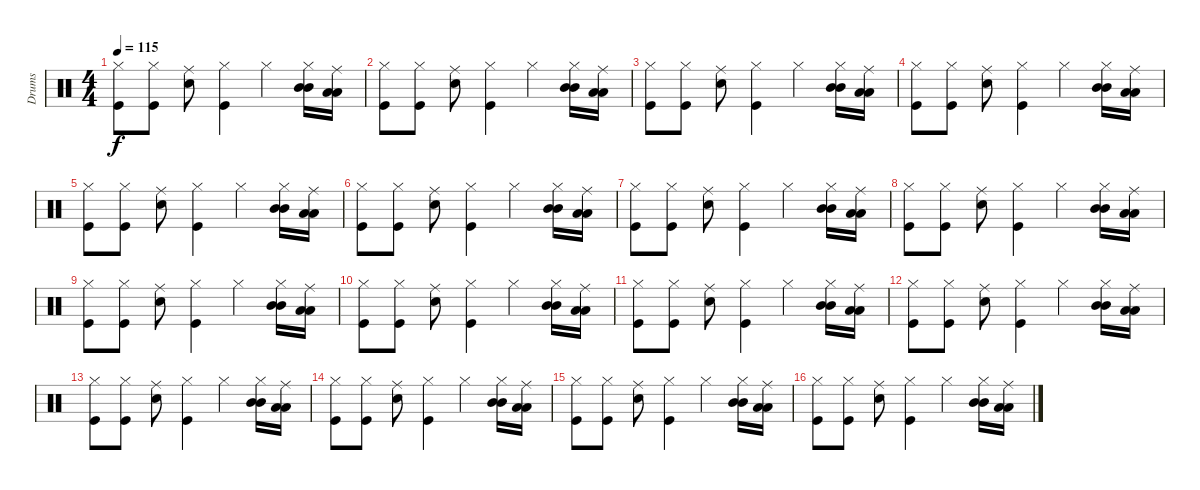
\track ("Drums" "Drums") {instrument percussion}
\staff {score}
\articulation defaults
\ts (4 4)
\tempo 115
\clef neutral
\ks c
("Hi-Hat (closed)" "Kick (hit)").8{dy f} ("Hi-Hat (closed)" "Kick (hit)").8 ("Ride (middle)" "Electric Snare (hit)").8 ("Hi-Hat (closed)" "Kick (hit)").4 "Hi-Hat (closed)".4 ("Hi-Hat (closed)" "Mid Tom (hit)" "Mid Tom (hit)").16 ("Ride (middle)" "Low Tom (hit)" "Low Tom (hit)").16 |
("Hi-Hat (closed)" "Kick (hit)").8 ("Hi-Hat (closed)" "Kick (hit)").8 ("Ride (middle)" "Electric Snare (hit)").8 ("Hi-Hat (closed)" "Kick (hit)").4 "Hi-Hat (closed)".4 ("Hi-Hat (closed)" "Mid Tom (hit)" "Mid Tom (hit)").16 ("Ride (middle)" "Low Tom (hit)" "Low Tom (hit)").16 |
("Hi-Hat (closed)" "Kick (hit)").8 ("Hi-Hat (closed)" "Kick (hit)").8 ("Ride (middle)" "Electric Snare (hit)").8 ("Hi-Hat (closed)" "Kick (hit)").4 "Hi-Hat (closed)".4 ("Hi-Hat (closed)" "Mid Tom (hit)" "Mid Tom (hit)").16 ("Ride (middle)" "Low Tom (hit)" "Low Tom (hit)").16 |
("Hi-Hat (closed)" "Kick (hit)").8 ("Hi-Hat (closed)" "Kick (hit)").8 ("Ride (middle)" "Electric Snare (hit)").8 ("Hi-Hat (closed)" "Kick (hit)").4 "Hi-Hat (closed)".4 ("Hi-Hat (closed)" "Mid Tom (hit)" "Mid Tom (hit)").16 ("Ride (middle)" "Low Tom (hit)" "Low Tom (hit)").16 |
("Hi-Hat (closed)" "Kick (hit)").8 ("Hi-Hat (closed)" "Kick (hit)").8 ("Ride (middle)" "Electric Snare (hit)").8 ("Hi-Hat (closed)" "Kick (hit)").4 "Hi-Hat (closed)".4 ("Hi-Hat (closed)" "Mid Tom (hit)" "Mid Tom (hit)").16 ("Ride (middle)" "Low Tom (hit)" "Low Tom (hit)").16 |
("Hi-Hat (closed)" "Kick (hit)").8 ("Hi-Hat (closed)" "Kick (hit)").8 ("Ride (middle)" "Electric Snare (hit)").8 ("Hi-Hat (closed)" "Kick (hit)").4 "Hi-Hat (closed)".4 ("Hi-Hat (closed)" "Mid Tom (hit)" "Mid Tom (hit)").16 ("Ride (middle)" "Low Tom (hit)" "Low Tom (hit)").16 |
("Hi-Hat (closed)" "Kick (hit)").8 ("Hi-Hat (closed)" "Kick (hit)").8 ("Ride (middle)" "Electric Snare (hit)").8 ("Hi-Hat (closed)" "Kick (hit)").4 "Hi-Hat (closed)".4 ("Hi-Hat (closed)" "Mid Tom (hit)" "Mid Tom (hit)").16 ("Ride (middle)" "Low Tom (hit)" "Low Tom (hit)").16 |
("Hi-Hat (closed)" "Kick (hit)").8 ("Hi-Hat (closed)" "Kick (hit)").8 ("Ride (middle)" "Electric Snare (hit)").8 ("Hi-Hat (closed)" "Kick (hit)").4 "Hi-Hat (closed)".4 ("Hi-Hat (closed)" "Mid Tom (hit)" "Mid Tom (hit)").16 ("Ride (middle)" "Low Tom (hit)" "Low Tom (hit)").16 |
("Hi-Hat (closed)" "Kick (hit)").8 ("Hi-Hat (closed)" "Kick (hit)").8 ("Ride (middle)" "Electric Snare (hit)").8 ("Hi-Hat (closed)" "Kick (hit)").4 "Hi-Hat (closed)".4 ("Hi-Hat (closed)" "Mid Tom (hit)" "Mid Tom (hit)").16 ("Ride (middle)" "Low Tom (hit)" "Low Tom (hit)").16 |
("Hi-Hat (closed)" "Kick (hit)").8 ("Hi-Hat (closed)" "Kick (hit)").8 ("Ride (middle)" "Electric Snare (hit)").8 ("Hi-Hat (closed)" "Kick (hit)").4 "Hi-Hat (closed)".4 ("Hi-Hat (closed)" "Mid Tom (hit)" "Mid Tom (hit)").16 ("Ride (middle)" "Low Tom (hit)" "Low Tom (hit)").16 |
("Hi-Hat (closed)" "Kick (hit)").8 ("Hi-Hat (closed)" "Kick (hit)").8 ("Ride (middle)" "Electric Snare (hit)").8 ("Hi-Hat (closed)" "Kick (hit)").4 "Hi-Hat (closed)".4 ("Hi-Hat (closed)" "Mid Tom (hit)" "Mid Tom (hit)").16 ("Ride (middle)" "Low Tom (hit)" "Low Tom (hit)").16 |
("Hi-Hat (closed)" "Kick (hit)").8 ("Hi-Hat (closed)" "Kick (hit)").8 ("Ride (middle)" "Electric Snare (hit)").8 ("Hi-Hat (closed)" "Kick (hit)").4 "Hi-Hat (closed)".4 ("Hi-Hat (closed)" "Mid Tom (hit)" "Mid Tom (hit)").16 ("Ride (middle)" "Low Tom (hit)" "Low Tom (hit)").16 |
("Hi-Hat (closed)" "Kick (hit)").8 ("Hi-Hat (closed)" "Kick (hit)").8 ("Ride (middle)" "Electric Snare (hit)").8 ("Hi-Hat (closed)" "Kick (hit)").4 "Hi-Hat (closed)".4 ("Hi-Hat (closed)" "Mid Tom (hit)" "Mid Tom (hit)").16 ("Ride (middle)" "Low Tom (hit)" "Low Tom (hit)").16 |
("Hi-Hat (closed)" "Kick (hit)").8 ("Hi-Hat (closed)" "Kick (hit)").8 ("Ride (middle)" "Electric Snare (hit)").8 ("Hi-Hat (closed)" "Kick (hit)").4 "Hi-Hat (closed)".4 ("Hi-Hat (closed)" "Mid Tom (hit)" "Mid Tom (hit)").16 ("Ride (middle)" "Low Tom (hit)" "Low Tom (hit)").16 |
("Hi-Hat (closed)" "Kick (hit)").8 ("Hi-Hat (closed)" "Kick (hit)").8 ("Ride (middle)" "Electric Snare (hit)").8 ("Hi-Hat (closed)" "Kick (hit)").4 "Hi-Hat (closed)".4 ("Hi-Hat (closed)" "Mid Tom (hit)" "Mid Tom (hit)").16 ("Ride (middle)" "Low Tom (hit)" "Low Tom (hit)").16 |
("Hi-Hat (closed)" "Kick (hit)").8 ("Hi-Hat (closed)" "Kick (hit)").8 ("Ride (middle)" "Electric Snare (hit)").8 ("Hi-Hat (closed)" "Kick (hit)").4 "Hi-Hat (closed)".4 ("Hi-Hat (closed)" "Mid Tom (hit)" "Mid Tom (hit)").16 ("Ride (middle)" "Low Tom (hit)" "Low Tom (hit)").16
